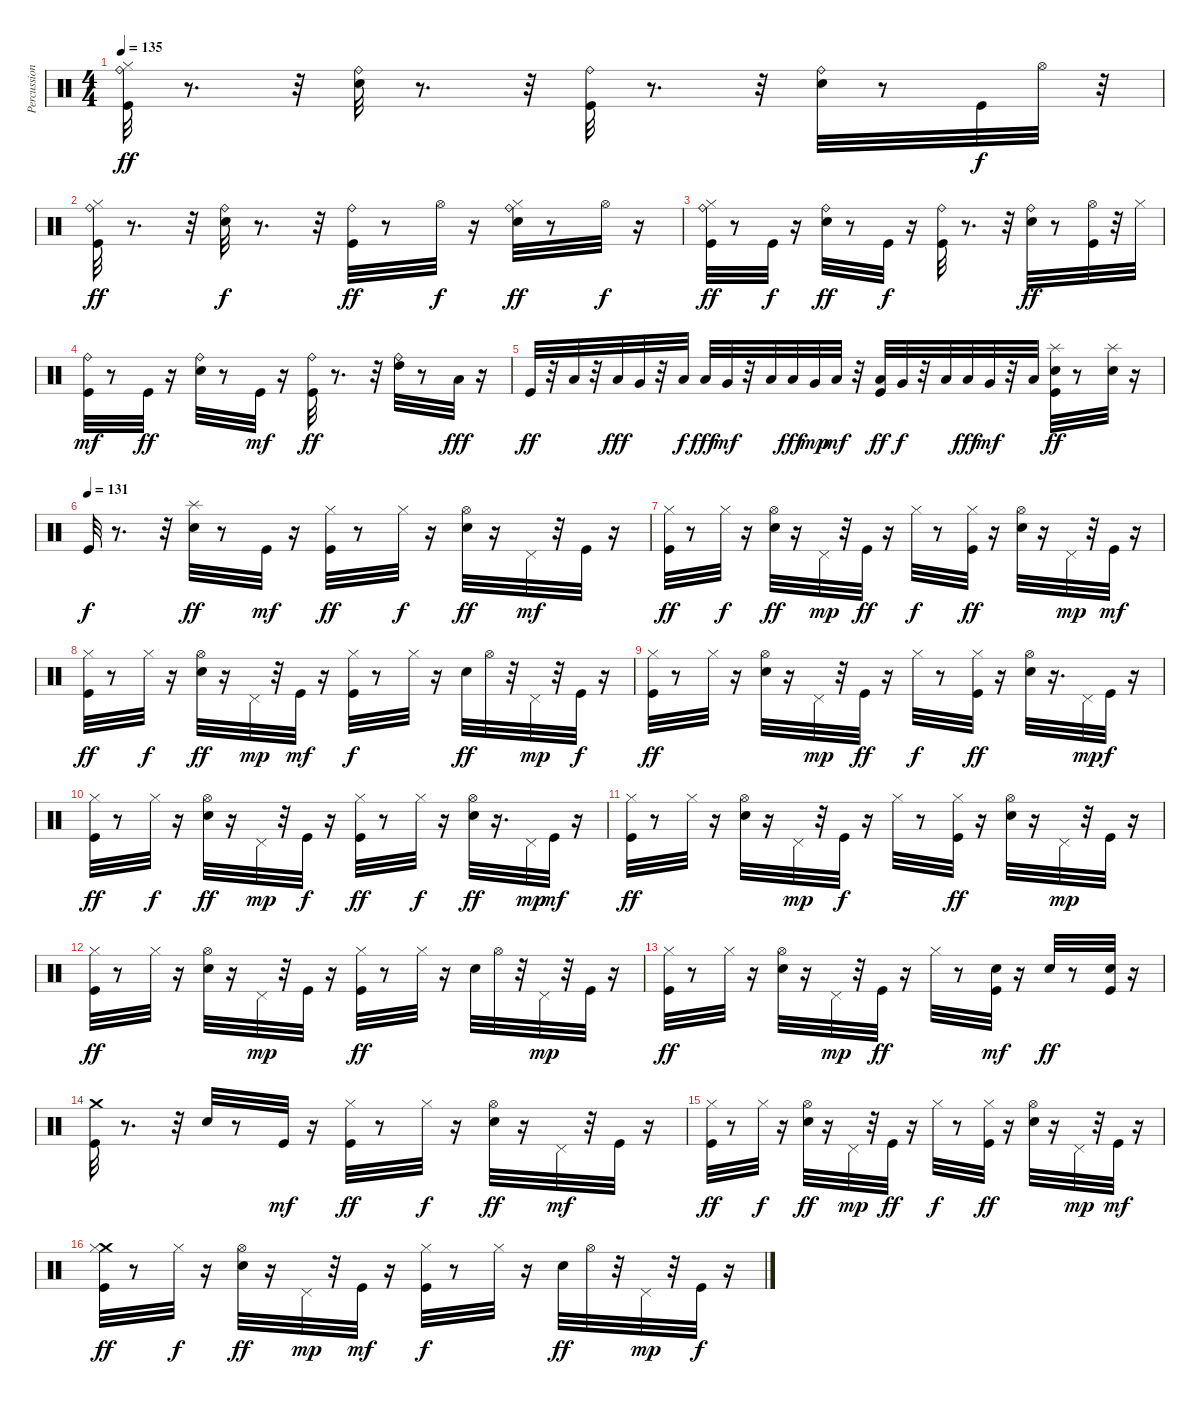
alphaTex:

\track ("Percussion" "Percussion") {instrument percussion}
\staff {score}
\articulation defaults
\ts (4 4)
\tempo 135
\clef neutral
\ks c
("Kick (hit)" "Ride (bell)" "Hi-Hat (closed)").32{dy ff} r.8{d} r.32 ("Ride (bell)" "Electric Snare (hit)").32 r.8{d} r.32 ("Kick (hit)" "Ride (bell)").32 r.8{d} r.32 ("Ride (bell)" "Electric Snare (hit)").32 r.8 "Kick (hit)".32{dy f} "Hi-Hat (open)".32 r.32 |
("Hi-Hat (closed)" "Kick (hit)" "Ride (bell)").32{dy ff} r.8{d} r.32 ("Ride (bell)" "Electric Snare (hit)").32{dy f} r.8{d} r.32 ("Kick (hit)" "Ride (bell)").32{dy ff} r.8 "Hi-Hat (open)".32{dy f} r.16 ("Hi-Hat (closed)" "Electric Snare (hit)" "Ride (bell)").32{dy ff} r.8 "Hi-Hat (open)".32{dy f} r.16 |
("Kick (hit)" "Ride (bell)" "Hi-Hat (closed)").32{dy ff} r.8 "Kick (hit)".32{dy f} r.16 ("Electric Snare (hit)" "Ride (bell)").32{dy ff} r.8 "Kick (hit)".32{dy f} r.16 ("Kick (hit)" "Ride (bell)").32 r.8{d} r.32 ("Electric Snare (hit)" "Ride (bell)").32{dy ff} r.8 ("Kick (hit)" "Hi-Hat (open)").32 r.32 "Hi-Hat (closed)".32 |
("Kick (hit)" "Ride (bell)").32{dy mf} r.8 "Kick (hit)".32{dy ff} r.16 ("Electric Snare (hit)" "Ride (bell)").32 r.8 "Kick (hit)".32{dy mf} r.16 ("Kick (hit)" "Ride (bell)").32{dy ff} r.8{d} r.32 ("Ride (bell)" "High Tom (hit)").32 r.8 "Low Tom (hit)".32{dy fff} r.16 |
"Kick (hit)".32{dy ff} r.32 "Low Floor Tom (hit)".32 r.32 "Low Tom (hit)".32{dy fff} "Very Low Tom (hit)".32 r.32 "Low Floor Tom (hit)".32{dy f} "Low Tom (hit)".32{dy fff} "Very Low Tom (hit)".32{dy mf} r.32 "Low Floor Tom (hit)".32 "Low Tom (hit)".32{dy fff} "Very Low Tom (hit)".32{dy mp} "Low Floor Tom (hit)".32{dy mf} r.32 ("Kick (hit)" "Low Tom (hit)").32{dy ff} "Very Low Tom (hit)".32{dy f} r.32 "Low Floor Tom (hit)".32 "Low Tom (hit)".32{dy fff} "Very Low Tom (hit)".32{dy mf} r.32 "Low Floor Tom (hit)".32 ("Electric Snare (hit)" "Kick (hit)" "Splash (hit)").32{dy ff} r.8 ("Electric Snare (hit)" "Splash (hit)").32 r.16 |
\tempo (131)
"Kick (hit)".32{dy f} r.8{d} r.32 ("Splash (hit)" "Electric Snare (hit)").32{dy ff} r.8 "Kick (hit)".32{dy mf} r.16 ("Kick (hit)" "Hi-Hat (closed)").32{dy ff} r.8 "Hi-Hat (closed)".32{dy f} r.16 ("Hi-Hat (open)" "Electric Snare (hit)").32{dy ff} r.16 "Pedal Hi-Hat (hit)".32{dy mf} r.32 "Kick (hit)".32 r.16 |
("Kick (hit)" "Hi-Hat (closed)").32{dy ff} r.8 "Hi-Hat (closed)".32{dy f} r.16 ("Electric Snare (hit)" "Hi-Hat (open)").32{dy ff} r.16 "Pedal Hi-Hat (hit)".32{dy mp} r.32 "Kick (hit)".32{dy ff} r.16 "Hi-Hat (closed)".32{dy f} r.8 ("Kick (hit)" "Hi-Hat (closed)").32{dy ff} r.16 ("Electric Snare (hit)" "Hi-Hat (open)").32 r.16 "Pedal Hi-Hat (hit)".32{dy mp} r.32 "Kick (hit)".32{dy mf} r.16 |
("Kick (hit)" "Hi-Hat (closed)").32{dy ff} r.8 "Hi-Hat (closed)".32{dy f} r.16 ("Electric Snare (hit)" "Hi-Hat (open)").32{dy ff} r.16 "Pedal Hi-Hat (hit)".32{dy mp} r.32 "Kick (hit)".32{dy mf} r.16 ("Kick (hit)" "Hi-Hat (closed)").32{dy f} r.8 "Hi-Hat (closed)".32 r.16 "Electric Snare (hit)".32{dy ff} "Hi-Hat (open)".32 r.32 "Pedal Hi-Hat (hit)".32{dy mp} r.32 "Kick (hit)".32{dy f} r.16 |
("Kick (hit)" "Hi-Hat (closed)").32{dy ff} r.8 "Hi-Hat (closed)".32 r.16 ("Hi-Hat (open)" "Electric Snare (hit)").32 r.16 "Pedal Hi-Hat (hit)".32{dy mp} r.32 "Kick (hit)".32{dy ff} r.16 "Hi-Hat (closed)".32{dy f} r.8 ("Kick (hit)" "Hi-Hat (closed)").32{dy ff} r.16 ("Hi-Hat (open)" "Electric Snare (hit)").32 r.16{d} "Pedal Hi-Hat (hit)".32{dy mp} "Kick (hit)".32{dy f} r.16 |
("Kick (hit)" "Hi-Hat (closed)").32{dy ff} r.8 "Hi-Hat (closed)".32{dy f} r.16 ("Electric Snare (hit)" "Hi-Hat (open)").32{dy ff} r.16 "Pedal Hi-Hat (hit)".32{dy mp} r.32 "Kick (hit)".32{dy f} r.16 ("Kick (hit)" "Hi-Hat (closed)").32{dy ff} r.8 "Hi-Hat (closed)".32{dy f} r.16 ("Hi-Hat (open)" "Electric Snare (hit)").32{dy ff} r.16{d} "Pedal Hi-Hat (hit)".32{dy mp} "Kick (hit)".32{dy mf} r.16 |
("Kick (hit)" "Hi-Hat (closed)").32{dy ff} r.8 "Hi-Hat (closed)".32 r.16 ("Electric Snare (hit)" "Hi-Hat (open)").32 r.16 "Pedal Hi-Hat (hit)".32{dy mp} r.32 "Kick (hit)".32{dy f} r.16 "Hi-Hat (closed)".32 r.8 ("Kick (hit)" "Hi-Hat (closed)").32{dy ff} r.16 ("Hi-Hat (open)" "Electric Snare (hit)").32 r.16 "Pedal Hi-Hat (hit)".32{dy mp} r.32 "Kick (hit)".32 r.16 |
("Kick (hit)" "Hi-Hat (closed)").32{dy ff} r.8 "Hi-Hat (closed)".32 r.16 ("Electric Snare (hit)" "Hi-Hat (open)").32 r.16 "Pedal Hi-Hat (hit)".32{dy mp} r.32 "Kick (hit)".32 r.16 ("Kick (hit)" "Hi-Hat (closed)").32{dy ff} r.8 "Hi-Hat (closed)".32 r.16 "Electric Snare (hit)".32 "Hi-Hat (open)".32 r.32 "Pedal Hi-Hat (hit)".32{dy mp} r.32 "Kick (hit)".32 r.16 |
("Kick (hit)" "Hi-Hat (closed)").32{dy ff} r.8 "Hi-Hat (closed)".32 r.16 ("Electric Snare (hit)" "Hi-Hat (open)").32 r.16 "Pedal Hi-Hat (hit)".32{dy mp} r.32 "Kick (hit)".32{dy ff} r.16 "Hi-Hat (closed)".32 r.8 ("Kick (hit)" "Electric Snare (hit)").32{dy mf} r.16 "Electric Snare (hit)".32{dy ff} r.8 ("Kick (hit)" "Electric Snare (hit)").32 r.16 |
("Kick (hit)" "Crash medium (hit)").32 r.8{d} r.32 "Electric Snare (hit)".32 r.8 "Kick (hit)".32{dy mf} r.16 ("Kick (hit)" "Hi-Hat (closed)").32{dy ff} r.8 "Hi-Hat (closed)".32{dy f} r.16 ("Hi-Hat (open)" "Electric Snare (hit)").32{dy ff} r.16 "Pedal Hi-Hat (hit)".32{dy mf} r.32 "Kick (hit)".32 r.16 |
("Kick (hit)" "Hi-Hat (closed)").32{dy ff} r.8 "Hi-Hat (closed)".32{dy f} r.16 ("Electric Snare (hit)" "Hi-Hat (open)").32{dy ff} r.16 "Pedal Hi-Hat (hit)".32{dy mp} r.32 "Kick (hit)".32{dy ff} r.16 "Hi-Hat (closed)".32{dy f} r.8 ("Kick (hit)" "Hi-Hat (closed)").32{dy ff} r.16 ("Electric Snare (hit)" "Hi-Hat (open)").32 r.16 "Pedal Hi-Hat (hit)".32{dy mp} r.32 "Kick (hit)".32{dy mf} r.16 |
("Crash medium (hit)" "Kick (hit)" "Hi-Hat (closed)").32{dy ff} r.8 "Hi-Hat (closed)".32{dy f} r.16 ("Electric Snare (hit)" "Hi-Hat (open)").32{dy ff} r.16 "Pedal Hi-Hat (hit)".32{dy mp} r.32 "Kick (hit)".32{dy mf} r.16 ("Kick (hit)" "Hi-Hat (closed)").32{dy f} r.8 "Hi-Hat (closed)".32 r.16 "Electric Snare (hit)".32{dy ff} "Hi-Hat (open)".32 r.32 "Pedal Hi-Hat (hit)".32{dy mp} r.32 "Kick (hit)".32{dy f} r.16
